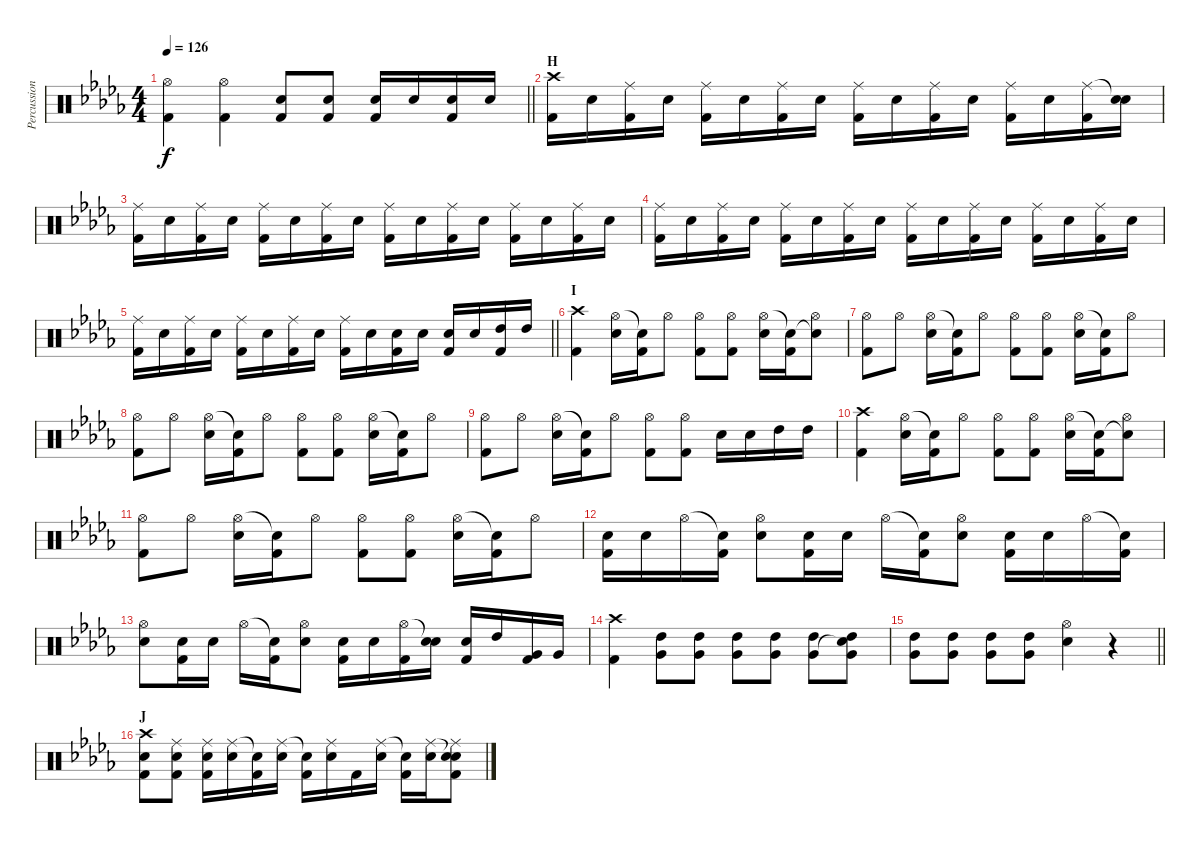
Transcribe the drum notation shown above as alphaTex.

\track ("Percussion" "Percussion") {instrument percussion}
\staff {score}
\articulation defaults
\ts (4 4)
\tempo 126
\clef neutral
\barLineRight lightlight
\ks db
("Hi-Hat (open)" "Kick (hit) 2").4{dy f} ("Hi-Hat (open)" "Kick (hit) 2").4 ("Electric Snare (hit)" "Kick (hit) 2").8 ("Electric Snare (hit)" "Kick (hit) 2").8 ("Electric Snare (hit)" "Kick (hit) 2").16 "Electric Snare (hit)".16 ("Electric Snare (hit)" "Kick (hit) 2").16 "Electric Snare (hit)".16 |
\section ("" "H")
("Crash high (hit)" "Kick (hit) 2").16 "Electric Snare (hit)".16 ("Ride (middle)" "Kick (hit) 2").16 "Electric Snare (hit)".16 ("Ride (middle)" "Kick (hit) 2").16 "Electric Snare (hit)".16 ("Ride (middle)" "Kick (hit) 2").16 "Electric Snare (hit)".16 ("Ride (middle)" "Kick (hit) 2").16 "Electric Snare (hit)".16 ("Ride (middle)" "Kick (hit) 2").16 "Electric Snare (hit)".16 ("Ride (middle)" "Kick (hit) 2").16 "Electric Snare (hit)".16 ("Ride (middle)" "Kick (hit) 2").16 ("Snare (hit)"{t} "Electric Snare (hit)").16 |
("Ride (middle)" "Kick (hit) 2").16 "Electric Snare (hit)".16 ("Ride (middle)" "Kick (hit) 2").16 "Electric Snare (hit)".16 ("Ride (middle)" "Kick (hit) 2").16 "Electric Snare (hit)".16 ("Ride (middle)" "Kick (hit) 2").16 "Electric Snare (hit)".16 ("Ride (middle)" "Kick (hit) 2").16 "Electric Snare (hit)".16 ("Ride (middle)" "Kick (hit) 2").16 "Electric Snare (hit)".16 ("Ride (middle)" "Kick (hit) 2").16 "Electric Snare (hit)".16 ("Ride (middle)" "Kick (hit) 2").16 "Electric Snare (hit)".16 |
("Ride (middle)" "Kick (hit) 2").16 "Electric Snare (hit)".16 ("Ride (middle)" "Kick (hit) 2").16 "Electric Snare (hit)".16 ("Ride (middle)" "Kick (hit) 2").16 "Electric Snare (hit)".16 ("Ride (middle)" "Kick (hit) 2").16 "Electric Snare (hit)".16 ("Ride (middle)" "Kick (hit) 2").16 "Electric Snare (hit)".16 ("Ride (middle)" "Kick (hit) 2").16 "Electric Snare (hit)".16 ("Ride (middle)" "Kick (hit) 2").16 "Electric Snare (hit)".16 ("Ride (middle)" "Kick (hit) 2").16 "Electric Snare (hit)".16 |
\barLineRight lightlight
("Ride (middle)" "Kick (hit) 2").16 "Electric Snare (hit)".16 ("Ride (middle)" "Kick (hit) 2").16 "Electric Snare (hit)".16 ("Ride (middle)" "Kick (hit) 2").16 "Electric Snare (hit)".16 ("Ride (middle)" "Kick (hit) 2").16 "Electric Snare (hit)".16 ("Ride (middle)" "Kick (hit) 2").16 "Electric Snare (hit)".16 ("Electric Snare (hit)" "Kick (hit) 2").16 "Electric Snare (hit)".16 ("Electric Snare (hit)" "Kick (hit) 2").16 "Electric Snare (hit)".16 ("High Tom (hit)" "Kick (hit) 2").16 "High Tom (hit)".16 |
\section ("" "I")
("Crash high (hit)" "Kick (hit) 2").4 ("Hi-Hat (open)" "Electric Snare (hit)").16 ("Snare (hit)"{t} "Kick (hit) 2").16 "Hi-Hat (open)".8 ("Hi-Hat (open)" "Kick (hit) 2").8 ("Hi-Hat (open)" "Kick (hit) 2").8 ("Hi-Hat (open)" "Electric Snare (hit)").16 ("Snare (hit)"{t} "Kick (hit) 2").16 ("Snare (hit)"{t} "Hi-Hat (open)").8 |
("Hi-Hat (open)" "Kick (hit) 2").8 "Hi-Hat (open)".8 ("Hi-Hat (open)" "Electric Snare (hit)").16 ("Snare (hit)"{t} "Kick (hit) 2").16 "Hi-Hat (open)".8 ("Hi-Hat (open)" "Kick (hit) 2").8 ("Hi-Hat (open)" "Kick (hit) 2").8 ("Hi-Hat (open)" "Electric Snare (hit)").16 ("Snare (hit)"{t} "Kick (hit) 2").16 "Hi-Hat (open)".8 |
("Hi-Hat (open)" "Kick (hit) 2").8 "Hi-Hat (open)".8 ("Hi-Hat (open)" "Electric Snare (hit)").16 ("Snare (hit)"{t} "Kick (hit) 2").16 "Hi-Hat (open)".8 ("Hi-Hat (open)" "Kick (hit) 2").8 ("Hi-Hat (open)" "Kick (hit) 2").8 ("Hi-Hat (open)" "Electric Snare (hit)").16 ("Snare (hit)"{t} "Kick (hit) 2").16 "Hi-Hat (open)".8 |
("Hi-Hat (open)" "Kick (hit) 2").8 "Hi-Hat (open)".8 ("Hi-Hat (open)" "Electric Snare (hit)").16 ("Snare (hit)"{t} "Kick (hit) 2").16 "Hi-Hat (open)".8 ("Hi-Hat (open)" "Kick (hit) 2").8 ("Hi-Hat (open)" "Kick (hit) 2").8 "Electric Snare (hit)".16 "Electric Snare (hit)".16 "High Tom (hit)".16 "High Tom (hit)".16 |
("Crash high (hit)" "Kick (hit) 2").4 ("Hi-Hat (open)" "Electric Snare (hit)").16 ("Snare (hit)"{t} "Kick (hit) 2").16 "Hi-Hat (open)".8 ("Hi-Hat (open)" "Kick (hit) 2").8 ("Hi-Hat (open)" "Kick (hit) 2").8 ("Hi-Hat (open)" "Electric Snare (hit)").16 ("Snare (hit)"{t} "Kick (hit) 2").16 ("Snare (hit)"{t} "Hi-Hat (open)").8 |
("Hi-Hat (open)" "Kick (hit) 2").8 "Hi-Hat (open)".8 ("Hi-Hat (open)" "Electric Snare (hit)").16 ("Snare (hit)"{t} "Kick (hit) 2").16 "Hi-Hat (open)".8 ("Hi-Hat (open)" "Kick (hit) 2").8 ("Hi-Hat (open)" "Kick (hit) 2").8 ("Hi-Hat (open)" "Electric Snare (hit)").16 ("Snare (hit)"{t} "Kick (hit) 2").16 "Hi-Hat (open)".8 |
("Electric Snare (hit)" "Kick (hit) 2").16 "Electric Snare (hit)".16 "Hi-Hat (open)".16 ("Snare (hit)"{t} "Kick (hit) 2").16 ("Hi-Hat (open)" "Electric Snare (hit)").8 ("Electric Snare (hit)" "Kick (hit) 2").16 "Electric Snare (hit)".16 "Hi-Hat (open)".16 ("Snare (hit)"{t} "Kick (hit) 2").16 ("Hi-Hat (open)" "Electric Snare (hit)").8 ("Electric Snare (hit)" "Kick (hit) 2").16 "Electric Snare (hit)".16 "Hi-Hat (open)".16 ("Snare (hit)"{t} "Kick (hit) 2").16 |
("Hi-Hat (open)" "Electric Snare (hit)").8 ("Electric Snare (hit)" "Kick (hit) 2").16 "Electric Snare (hit)".16 "Hi-Hat (open)".16 ("Snare (hit)"{t} "Kick (hit) 2").16 ("Hi-Hat (open)" "Electric Snare (hit)").8 ("Electric Snare (hit)" "Kick (hit) 2").16 "Electric Snare (hit)".16 ("Hi-Hat (open)" "Kick (hit) 2").16 ("Snare (hit)"{t} "Electric Snare (hit)").16 ("Electric Snare (hit)" "Kick (hit) 2").16 "High Tom (hit)".16 ("Very Low Tom (hit)" "Kick (hit) 2").16 "Very Low Tom (hit)".16 |
("Crash high (hit)" "Kick (hit) 2").4 ("High Tom (hit)" "Very Low Tom (hit)").8 ("High Tom (hit)" "Very Low Tom (hit)").8 ("High Tom (hit)" "Very Low Tom (hit)").8 ("High Tom (hit)" "Very Low Tom (hit)").8 ("High Tom (hit)" "Very Low Tom (hit)").8 ("High Tom (hit)" "Snare (hit)"{t} "Very Low Tom (hit)").8 |
\barLineRight lightlight
("High Tom (hit)" "Very Low Tom (hit)").8 ("High Tom (hit)" "Very Low Tom (hit)").8 ("High Tom (hit)" "Very Low Tom (hit)").8 ("High Tom (hit)" "Very Low Tom (hit)").8 ("Hi-Hat (open)" "Electric Snare (hit)").4 r.4 |
\section ("" "J")
("Crash high (hit)" "Electric Snare (hit)" "Kick (hit) 2").8 ("Electric Snare (hit)" "Kick (hit) 2" "Ride (middle)").8 ("Ride (middle)" "Electric Snare (hit)" "Kick (hit) 2").16 ("Ride (middle)" "Electric Snare (hit)").16 ("Snare (hit)"{t} "Kick (hit) 2").16 ("Ride (middle)" "Electric Snare (hit)").16 ("Snare (hit)"{t} "Kick (hit) 2").16 ("Ride (middle)" "Electric Snare (hit)").16 "Kick (hit) 2".16 ("Ride (middle)" "Electric Snare (hit)").16 ("Snare (hit)"{t} "Kick (hit) 2").16 ("Ride (middle)" "Electric Snare (hit)").16 ("Snare (hit)"{t} "Ride (middle)" "Electric Snare (hit)" "Kick (hit) 2").8
